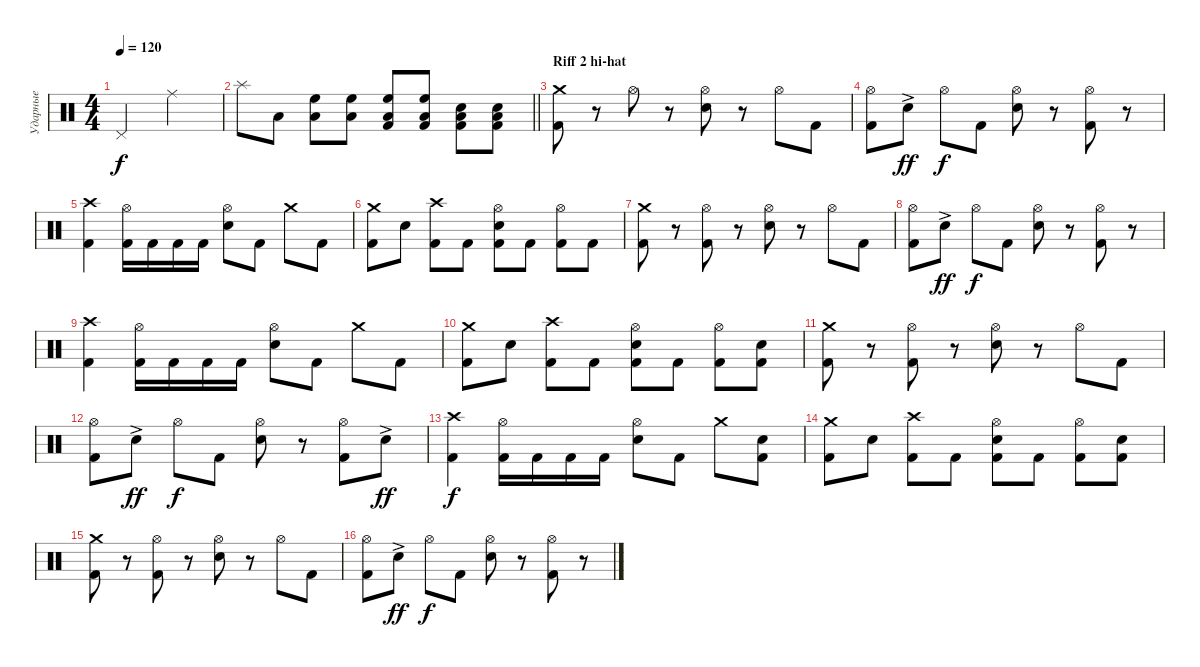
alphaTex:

\track ("Ударные" "Ударные") {instrument percussion}
\staff {score}
\articulation defaults
\ts (4 4)
\tempo 120
\clef neutral
\ks c "Pedal Hi-Hat (hit)".2{dy f} "Ride (middle)".2
|
\barLineRight lightlight "Splash (hit)".8 "Low Tom (hit)".8
("High Floor Tom (hit)" "Low Tom (hit)").8 ("High Floor Tom (hit)" "Low Tom (hit)").8 ("High Floor Tom (hit)" "Low Tom (hit)" "Kick (hit) 2").8 ("High Floor Tom (hit)" "Low Tom (hit)" "Kick (hit) 2").8 ("Electric Snare (hit)" "Low Tom (hit)" "Kick (hit) 2").8 ("Electric Snare (hit)" "Low Tom (hit)" "Kick (hit) 2").8 |
\section ("" "Riff 2 hi-hat")
("Crash medium (hit)" "Kick (hit) 2").8 r.8 "Hi-Hat (open)".8 r.8 ("Hi-Hat (open)" "Electric Snare (hit)").8 r.8 "Hi-Hat (open)".8 "Kick (hit) 2".8 |
("Hi-Hat (open)" "Kick (hit) 2").8 "Electric Snare (hit)"{ac}.8{dy ff} "Hi-Hat (open)".8{dy f} "Kick (hit) 2".8 ("Hi-Hat (open)" "Electric Snare (hit)").8 r.8 ("Hi-Hat (open)" "Kick (hit) 2").8 r.8 |
("Crash high (hit)" "Kick (hit) 2").4 ("Hi-Hat (open)" "Kick (hit) 2").16 "Kick (hit) 2".16 "Kick (hit) 2".16 "Kick (hit) 2".16 ("Hi-Hat (open)" "Electric Snare (hit)").8 "Kick (hit) 2".8 "Crash medium (hit)".8 "Kick (hit) 2".8 |
("Crash medium (hit)" "Kick (hit) 2").8 "Electric Snare (hit)".8 ("Crash high (hit)" "Kick (hit) 2").8 "Kick (hit) 2".8 ("Hi-Hat (open)" "Electric Snare (hit)" "Kick (hit) 2").8 "Kick (hit) 2".8 ("Hi-Hat (open)" "Kick (hit) 2").8 "Kick (hit) 2".8 |
("Crash medium (hit)" "Kick (hit) 2").8 r.8 ("Hi-Hat (open)" "Kick (hit) 2").8 r.8 ("Hi-Hat (open)" "Electric Snare (hit)").8 r.8 "Hi-Hat (open)".8 "Kick (hit) 2".8 |
("Hi-Hat (open)" "Kick (hit) 2").8 "Electric Snare (hit)"{ac}.8{dy ff} "Hi-Hat (open)".8{dy f} "Kick (hit) 2".8 ("Hi-Hat (open)" "Electric Snare (hit)").8 r.8 ("Hi-Hat (open)" "Kick (hit) 2").8 r.8 |
("Crash high (hit)" "Kick (hit) 2").4 ("Hi-Hat (open)" "Kick (hit) 2").16 "Kick (hit) 2".16 "Kick (hit) 2".16 "Kick (hit) 2".16 ("Hi-Hat (open)" "Electric Snare (hit)").8 "Kick (hit) 2".8 "Crash medium (hit)".8 "Kick (hit) 2".8 |
("Crash medium (hit)" "Kick (hit) 2").8 "Electric Snare (hit)".8 ("Crash high (hit)" "Kick (hit) 2").8 "Kick (hit) 2".8 ("Hi-Hat (open)" "Electric Snare (hit)" "Kick (hit) 2").8 "Kick (hit) 2".8 ("Hi-Hat (open)" "Kick (hit) 2").8 ("Electric Snare (hit)" "Kick (hit) 2").8 |
("Crash medium (hit)" "Kick (hit) 2").8 r.8 ("Hi-Hat (open)" "Kick (hit) 2").8 r.8 ("Hi-Hat (open)" "Electric Snare (hit)").8 r.8 "Hi-Hat (open)".8 "Kick (hit) 2".8 |
("Hi-Hat (open)" "Kick (hit) 2").8 "Electric Snare (hit)"{ac}.8{dy ff} "Hi-Hat (open)".8{dy f} "Kick (hit) 2".8 ("Hi-Hat (open)" "Electric Snare (hit)").8 r.8 ("Hi-Hat (open)" "Kick (hit) 2").8 "Electric Snare (hit)"{ac}.8{dy ff} |
("Crash high (hit)" "Kick (hit) 2").4{dy f} ("Hi-Hat (open)" "Kick (hit) 2").16 "Kick (hit) 2".16 "Kick (hit) 2".16 "Kick (hit) 2".16 ("Hi-Hat (open)" "Electric Snare (hit)").8 "Kick (hit) 2".8 "Crash medium (hit)".8 ("Electric Snare (hit)" "Kick (hit) 2").8 |
("Crash medium (hit)" "Kick (hit) 2").8 "Electric Snare (hit)".8 ("Crash high (hit)" "Kick (hit) 2").8 "Kick (hit) 2".8 ("Hi-Hat (open)" "Electric Snare (hit)" "Kick (hit) 2").8 "Kick (hit) 2".8 ("Hi-Hat (open)" "Kick (hit) 2").8 ("Electric Snare (hit)" "Kick (hit) 2").8 |
("Crash medium (hit)" "Kick (hit) 2").8 r.8 ("Hi-Hat (open)" "Kick (hit) 2").8 r.8 ("Hi-Hat (open)" "Electric Snare (hit)").8 r.8 "Hi-Hat (open)".8 "Kick (hit) 2".8 |
("Hi-Hat (open)" "Kick (hit) 2").8 "Electric Snare (hit)"{ac}.8{dy ff} "Hi-Hat (open)".8{dy f} "Kick (hit) 2".8 ("Hi-Hat (open)" "Electric Snare (hit)").8 r.8 ("Hi-Hat (open)" "Kick (hit) 2").8 r.8
